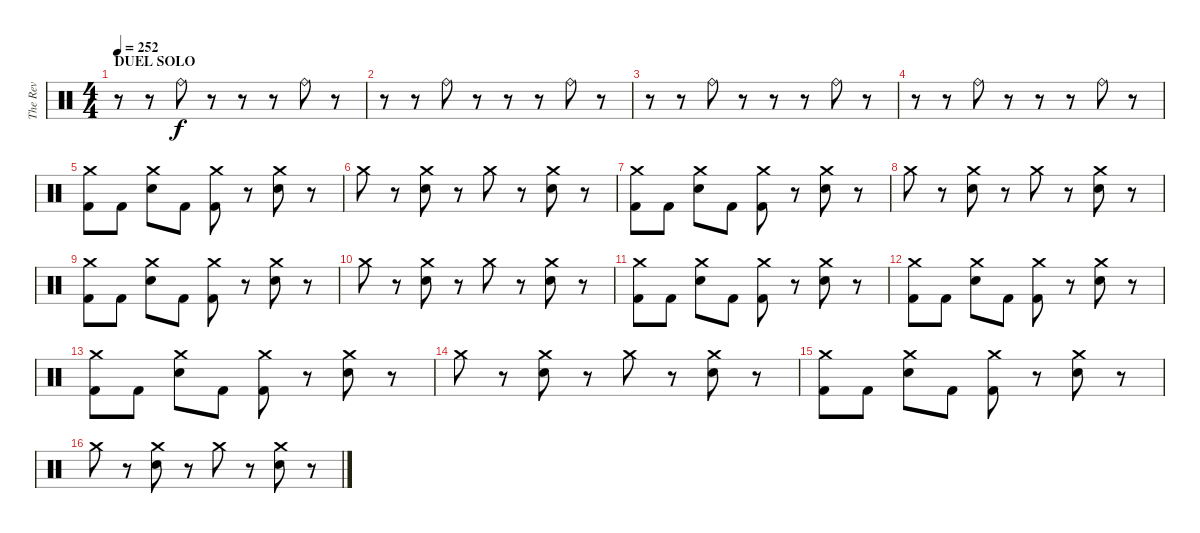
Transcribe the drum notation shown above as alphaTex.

\track ("The Rev" "The Rev") {instrument percussion}
\staff {score}
\articulation defaults
\ts (4 4)
\section ("" "DUEL SOLO")
\tempo 252
\clef neutral
\ks c
r.8{dy f} r.8 "Ride (bell)".8 r.8 r.8 r.8 "Ride (bell)".8 r.8 |
r.8 r.8 "Ride (bell)".8 r.8 r.8 r.8 "Ride (bell)".8 r.8 |
r.8 r.8 "Ride (bell)".8 r.8 r.8 r.8 "Ride (bell)".8 r.8 |
r.8 r.8 "Ride (bell)".8 r.8 r.8 r.8 "Ride (bell)".8 r.8 |
("Crash medium (hit)" "Kick (hit) 2").8 "Kick (hit) 2".8 ("Crash medium (hit)" "Electric Snare (hit)").8 "Kick (hit) 2".8 ("Crash medium (hit)" "Kick (hit) 2").8 r.8 ("Crash medium (hit)" "Electric Snare (hit)").8 r.8 |
"Crash medium (hit)".8 r.8 ("Crash medium (hit)" "Electric Snare (hit)").8 r.8 "Crash medium (hit)".8 r.8 ("Crash medium (hit)" "Electric Snare (hit)").8 r.8 |
("Crash medium (hit)" "Kick (hit) 2").8 "Kick (hit) 2".8 ("Crash medium (hit)" "Electric Snare (hit)").8 "Kick (hit) 2".8 ("Crash medium (hit)" "Kick (hit) 2").8 r.8 ("Crash medium (hit)" "Electric Snare (hit)").8 r.8 |
"Crash medium (hit)".8 r.8 ("Crash medium (hit)" "Electric Snare (hit)").8 r.8 "Crash medium (hit)".8 r.8 ("Crash medium (hit)" "Electric Snare (hit)").8 r.8 |
("Crash medium (hit)" "Kick (hit) 2").8 "Kick (hit) 2".8 ("Crash medium (hit)" "Electric Snare (hit)").8 "Kick (hit) 2".8 ("Crash medium (hit)" "Kick (hit) 2").8 r.8 ("Crash medium (hit)" "Electric Snare (hit)").8 r.8 |
"Crash medium (hit)".8 r.8 ("Crash medium (hit)" "Electric Snare (hit)").8 r.8 "Crash medium (hit)".8 r.8 ("Crash medium (hit)" "Electric Snare (hit)").8 r.8 |
("Crash medium (hit)" "Kick (hit) 2").8 "Kick (hit) 2".8 ("Crash medium (hit)" "Electric Snare (hit)").8 "Kick (hit) 2".8 ("Crash medium (hit)" "Kick (hit) 2").8 r.8 ("Crash medium (hit)" "Electric Snare (hit)").8 r.8 |
("Crash medium (hit)" "Kick (hit) 2").8 "Kick (hit) 2".8 ("Crash medium (hit)" "Electric Snare (hit)").8 "Kick (hit) 2".8 ("Crash medium (hit)" "Kick (hit) 2").8 r.8 ("Crash medium (hit)" "Electric Snare (hit)").8 r.8 |
("Crash medium (hit)" "Kick (hit) 2").8 "Kick (hit) 2".8 ("Crash medium (hit)" "Electric Snare (hit)").8 "Kick (hit) 2".8 ("Crash medium (hit)" "Kick (hit) 2").8 r.8 ("Crash medium (hit)" "Electric Snare (hit)").8 r.8 |
"Crash medium (hit)".8 r.8 ("Crash medium (hit)" "Electric Snare (hit)").8 r.8 "Crash medium (hit)".8 r.8 ("Crash medium (hit)" "Electric Snare (hit)").8 r.8 |
("Crash medium (hit)" "Kick (hit) 2").8 "Kick (hit) 2".8 ("Crash medium (hit)" "Electric Snare (hit)").8 "Kick (hit) 2".8 ("Crash medium (hit)" "Kick (hit) 2").8 r.8 ("Crash medium (hit)" "Electric Snare (hit)").8 r.8 |
"Crash medium (hit)".8 r.8 ("Crash medium (hit)" "Electric Snare (hit)").8 r.8 "Crash medium (hit)".8 r.8 ("Crash medium (hit)" "Electric Snare (hit)").8 r.8
